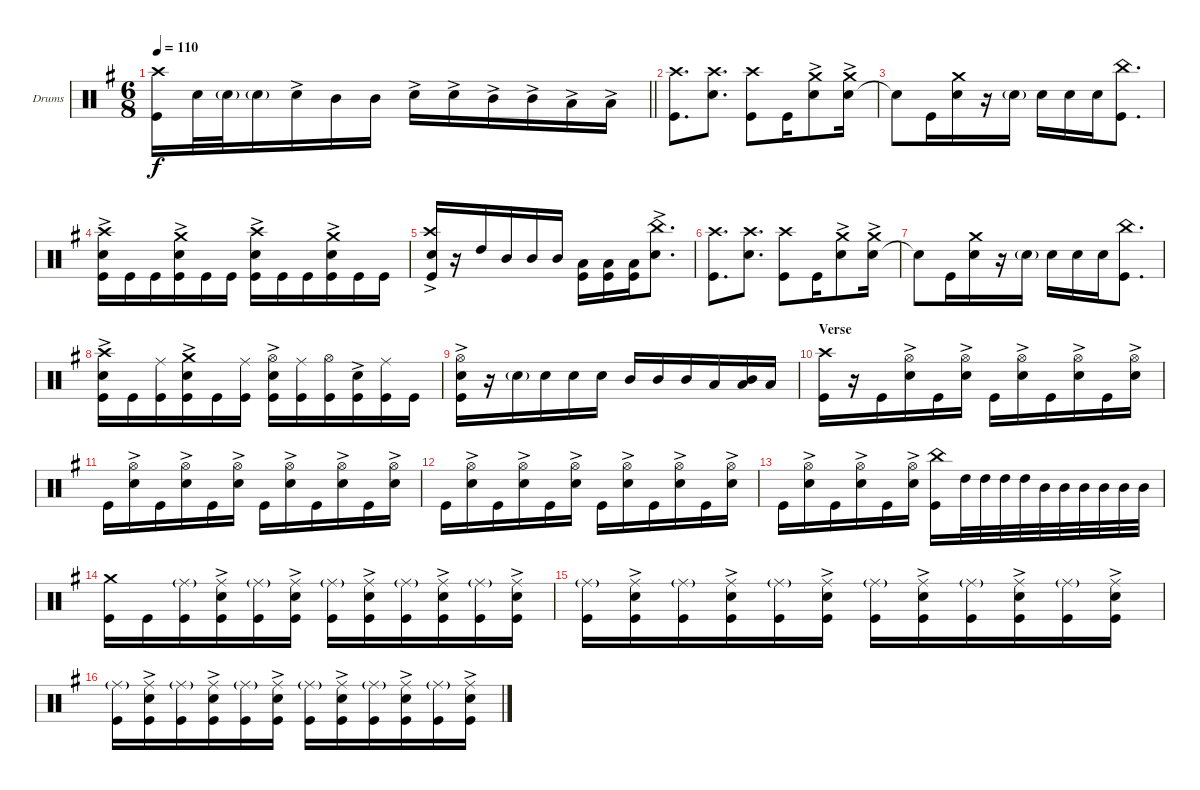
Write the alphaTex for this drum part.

\bracketExtendMode groupsimilarinstruments
\firstSystemTrackNameOrientation horizontal
\otherSystemsTrackNameOrientation horizontal
\track ("Drumkit" "Drums") {instrument percussion}
\staff {score}
\articulation defaults
\ts (6 8)
\tempo 110
\clef neutral
\barLineRight lightlight
\ks eminor
("Kick (hit)" "Crash high (hit)").16{dy f} "Snare (hit) 2".32 "Snare (hit) 2"{g}.32 "Snare (hit) 2"{g}.16 "Snare (hit) 2"{ac}.16 "Mid Tom (hit)".16 "Mid Tom (hit)".16 "Snare (hit) 2"{ac}.16 "Snare (hit) 2"{ac}.16 "Mid Tom (hit)"{ac}.16 "Mid Tom (hit)"{ac}.16 "Low Tom (hit)"{ac}.16 "Low Tom (hit)"{ac}.16 |
("Kick (hit)" "Crash high (hit)").8{d} ("Snare (hit) 2" "Crash high (hit)").8{d} ("Kick (hit)" "Crash high (hit)").8 "Kick (hit)".16 ("Snare (hit) 2"{ac} "Crash medium (hit)").8 ("Snare (hit) 2"{ac} "Crash medium (hit)").16 |
"Snare (hit) 2"{t}.8 "Kick (hit)".16 ("Snare (hit) 2" "Crash medium (hit)").16 r.16 "Snare (hit) 2"{g}.16 "Snare (hit) 2".16 "Snare (hit) 2".16 "Snare (hit) 2".16 ("Kick (hit)" "China (hit)").8{d} |
("Kick (hit)" "Snare (hit) 2"{ac} "Crash high (hit)").16 "Kick (hit)".16 "Kick (hit)".16 ("Kick (hit)" "Snare (hit) 2"{ac} "Crash medium (hit)").16 "Kick (hit)".16 "Kick (hit)".16 ("Kick (hit)" "Snare (hit) 2"{ac} "Crash high (hit)").16 "Kick (hit)".16 "Kick (hit)".16 ("Kick (hit)" "Snare (hit) 2"{ac} "Crash medium (hit)").16 "Kick (hit)".16 "Kick (hit)".16 |
("Kick (hit)" "Snare (hit) 2"{ac} "Crash high (hit)").16 r.16 "High Tom (hit)".16 "Mid Tom (hit)".16 "Mid Tom (hit)".16 "Mid Tom (hit)".16 ("Low Tom (hit)" "Kick (hit)").16 ("Low Tom (hit)" "Kick (hit)").16 ("Low Tom (hit)" "Kick (hit)").16 ("Snare (hit) 2"{ac} "China (hit)").8{d} |
("Kick (hit)" "Crash high (hit)").8{d} ("Snare (hit) 2" "Crash high (hit)").8{d} ("Kick (hit)" "Crash high (hit)").8 "Kick (hit)".16 ("Snare (hit) 2"{ac} "Crash medium (hit)").8 ("Snare (hit) 2"{ac} "Crash medium (hit)").16 |
"Snare (hit) 2"{t}.8 "Kick (hit)".16 ("Snare (hit) 2" "Crash medium (hit)").16 r.16 "Snare (hit) 2"{g}.16 "Snare (hit) 2".16 "Snare (hit) 2".16 "Snare (hit) 2".16 ("Kick (hit)" "China (hit)").8{d} |
("Kick (hit)" "Snare (hit) 2"{ac} "Crash high (hit)").16 "Kick (hit)".16 ("Kick (hit)" "Ride (middle)").16 ("Kick (hit)" "Snare (hit) 2"{ac} "Crash medium (hit)").16 "Kick (hit)".16 ("Kick (hit)" "Ride (middle)").16 ("Kick (hit)" "Snare (hit) 2"{ac} "Hi-Hat (open)").16 ("Kick (hit)" "Ride (middle)").16 ("Kick (hit)" "Hi-Hat (open)").16 ("Kick (hit)" "Snare (hit) 2"{ac}).16 ("Kick (hit)" "Ride (middle)").16 "Kick (hit)".16 |
("Kick (hit)" "Snare (hit) 2"{ac} "Hi-Hat (open)").16 r.16 "Snare (hit) 2"{g}.16 "Snare (hit) 2".16 "Snare (hit) 2".16 "Snare (hit) 2".16 "Mid Tom (hit)".16 "Mid Tom (hit)".16 "Mid Tom (hit)".16 "Low Tom (hit)".16 ("Mid Tom (hit)" "Low Tom (hit)").16 "Low Tom (hit)".16 |
\section ("" "Verse")
("Kick (hit)" "Crash high (hit)").16 r.16 "Kick (hit)".16 ("Snare (hit) 2"{ac} "Hi-Hat (open)").16 "Kick (hit)".16 ("Snare (hit) 2"{ac} "Hi-Hat (open)").16 "Kick (hit)".16 ("Snare (hit) 2"{ac} "Hi-Hat (open)").16 "Kick (hit)".16 ("Snare (hit) 2"{ac} "Hi-Hat (open)").16 "Kick (hit)".16 ("Snare (hit) 2"{ac} "Hi-Hat (open)").16 |
"Kick (hit)".16 ("Snare (hit) 2"{ac} "Hi-Hat (open)").16 "Kick (hit)".16 ("Snare (hit) 2"{ac} "Hi-Hat (open)").16 "Kick (hit)".16 ("Snare (hit) 2"{ac} "Hi-Hat (open)").16 "Kick (hit)".16 ("Snare (hit) 2"{ac} "Hi-Hat (open)").16 "Kick (hit)".16 ("Snare (hit) 2"{ac} "Hi-Hat (open)").16 "Kick (hit)".16 ("Snare (hit) 2"{ac} "Hi-Hat (open)").16 |
"Kick (hit)".16 ("Snare (hit) 2"{ac} "Hi-Hat (open)").16 "Kick (hit)".16 ("Snare (hit) 2"{ac} "Hi-Hat (open)").16 "Kick (hit)".16 ("Snare (hit) 2"{ac} "Hi-Hat (open)").16 "Kick (hit)".16 ("Snare (hit) 2"{ac} "Hi-Hat (open)").16 "Kick (hit)".16 ("Snare (hit) 2"{ac} "Hi-Hat (open)").16 "Kick (hit)".16 ("Snare (hit) 2"{ac} "Hi-Hat (open)").16 |
"Kick (hit)".16 ("Snare (hit) 2"{ac} "Hi-Hat (open)").16 "Kick (hit)".16 ("Snare (hit) 2"{ac} "Hi-Hat (open)").16 "Kick (hit)".16 ("Snare (hit) 2"{ac} "Hi-Hat (open)").16 ("Kick (hit)" "China (hit)").16 "High Tom (hit)".32 "High Tom (hit)".32 "High Tom (hit)".32 "High Tom (hit)".32 "Mid Tom (hit)".32 "Mid Tom (hit)".32 "Mid Tom (hit)".32 "Mid Tom (hit)".32 "Mid Tom (hit)".32 "Mid Tom (hit)".32 |
("Kick (hit)" "Crash medium (hit)").16 "Kick (hit)".16 ("Kick (hit)" "Ride (middle)"{g}).16 ("Kick (hit)" "Snare (hit) 2"{ac} "Ride (middle)").16 ("Kick (hit)" "Ride (middle)"{g}).16 ("Kick (hit)" "Snare (hit) 2"{ac} "Ride (middle)").16 ("Kick (hit)" "Ride (middle)"{g}).16 ("Kick (hit)" "Snare (hit) 2"{ac} "Ride (middle)").16 ("Kick (hit)" "Ride (middle)"{g}).16 ("Kick (hit)" "Snare (hit) 2"{ac} "Ride (middle)").16 ("Kick (hit)" "Ride (middle)"{g}).16 ("Kick (hit)" "Snare (hit) 2"{ac} "Ride (middle)").16 |
("Kick (hit)" "Ride (middle)"{g}).16 ("Kick (hit)" "Snare (hit) 2"{ac} "Ride (middle)").16 ("Kick (hit)" "Ride (middle)"{g}).16 ("Kick (hit)" "Snare (hit) 2"{ac} "Ride (middle)").16 ("Kick (hit)" "Ride (middle)"{g}).16 ("Kick (hit)" "Snare (hit) 2"{ac} "Ride (middle)").16 ("Kick (hit)" "Ride (middle)"{g}).16 ("Kick (hit)" "Snare (hit) 2"{ac} "Ride (middle)").16 ("Kick (hit)" "Ride (middle)"{g}).16 ("Kick (hit)" "Snare (hit) 2"{ac} "Ride (middle)").16 ("Kick (hit)" "Ride (middle)"{g}).16 ("Kick (hit)" "Snare (hit) 2"{ac} "Ride (middle)").16 |
("Kick (hit)" "Ride (middle)"{g}).16 ("Kick (hit)" "Snare (hit) 2"{ac} "Ride (middle)").16 ("Kick (hit)" "Ride (middle)"{g}).16 ("Kick (hit)" "Snare (hit) 2"{ac} "Ride (middle)").16 ("Kick (hit)" "Ride (middle)"{g}).16 ("Kick (hit)" "Snare (hit) 2"{ac} "Ride (middle)").16 ("Kick (hit)" "Ride (middle)"{g}).16 ("Kick (hit)" "Snare (hit) 2"{ac} "Ride (middle)").16 ("Kick (hit)" "Ride (middle)"{g}).16 ("Kick (hit)" "Snare (hit) 2"{ac} "Ride (middle)").16 ("Kick (hit)" "Ride (middle)"{g}).16 ("Kick (hit)" "Snare (hit) 2"{ac} "Ride (middle)").16
